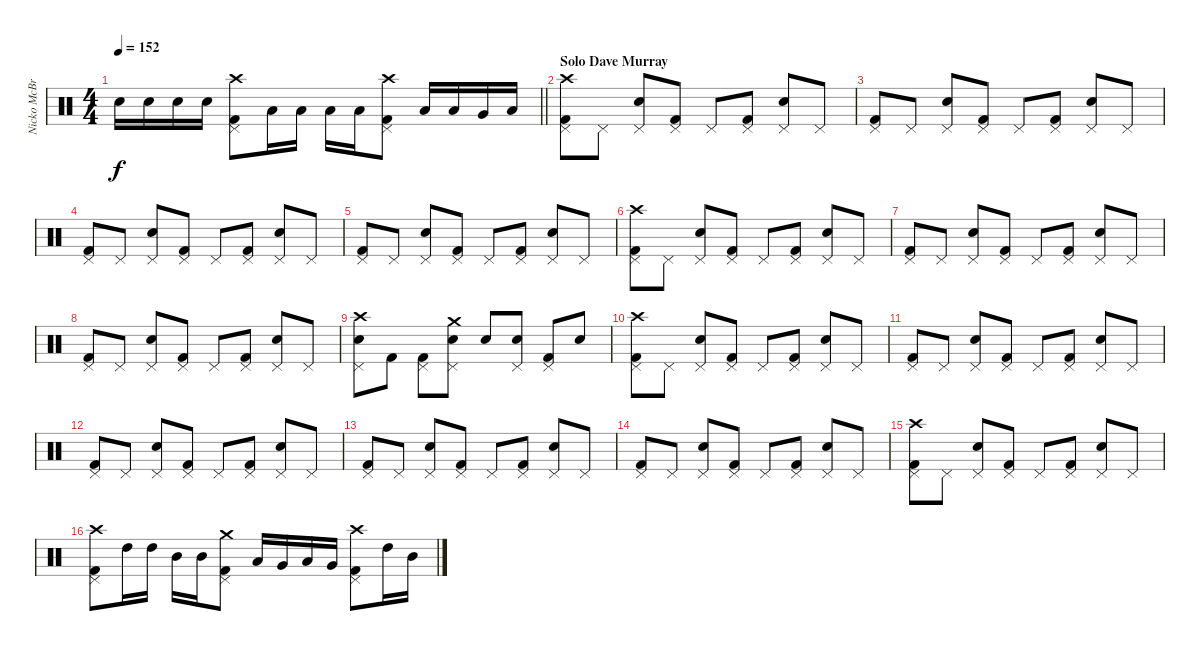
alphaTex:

\track ("Nicko McBrain" "Nicko McBr") {instrument percussion}
\staff {score}
\articulation defaults
\ts (4 4)
\tempo 152
\clef neutral
\barLineRight lightlight
\ks c "Snare (hit) 2".16{dy f} "Snare (hit) 2".16 "Snare (hit) 2".16 "Snare (hit) 2".16
("Kick (hit) 2" "Pedal Hi-Hat (hit)" "Crash high (hit)").8 "Low Tom (hit)".16 "Low Tom (hit)".16 "Low Tom (hit)".16 "Low Tom (hit)".16 ("Kick (hit) 2" "Pedal Hi-Hat (hit)" "Crash high (hit)").8 "Low Tom (hit)".16 "Low Tom (hit)".16 "Very Low Tom (hit)".16 "Low Floor Tom (hit)".16 |
\section ("" "Solo Dave Murray")
("Kick (hit) 2" "Pedal Hi-Hat (hit)" "Crash high (hit)").8 "Pedal Hi-Hat (hit)".8 ("Snare (hit) 2" "Pedal Hi-Hat (hit)").8 ("Kick (hit) 2" "Pedal Hi-Hat (hit)").8 "Pedal Hi-Hat (hit)".8 ("Kick (hit) 2" "Pedal Hi-Hat (hit)").8 ("Snare (hit) 2" "Pedal Hi-Hat (hit)").8 "Pedal Hi-Hat (hit)".8 |
("Kick (hit) 2" "Pedal Hi-Hat (hit)").8 "Pedal Hi-Hat (hit)".8 ("Snare (hit) 2" "Pedal Hi-Hat (hit)").8 ("Kick (hit) 2" "Pedal Hi-Hat (hit)").8 "Pedal Hi-Hat (hit)".8 ("Kick (hit) 2" "Pedal Hi-Hat (hit)").8 ("Snare (hit) 2" "Pedal Hi-Hat (hit)").8 "Pedal Hi-Hat (hit)".8 |
("Kick (hit) 2" "Pedal Hi-Hat (hit)").8 "Pedal Hi-Hat (hit)".8 ("Snare (hit) 2" "Pedal Hi-Hat (hit)").8 ("Kick (hit) 2" "Pedal Hi-Hat (hit)").8 "Pedal Hi-Hat (hit)".8 ("Kick (hit) 2" "Pedal Hi-Hat (hit)").8 ("Snare (hit) 2" "Pedal Hi-Hat (hit)").8 "Pedal Hi-Hat (hit)".8 |
("Kick (hit) 2" "Pedal Hi-Hat (hit)").8 "Pedal Hi-Hat (hit)".8 ("Snare (hit) 2" "Pedal Hi-Hat (hit)").8 ("Kick (hit) 2" "Pedal Hi-Hat (hit)").8 "Pedal Hi-Hat (hit)".8 ("Kick (hit) 2" "Pedal Hi-Hat (hit)").8 ("Snare (hit) 2" "Pedal Hi-Hat (hit)").8 "Pedal Hi-Hat (hit)".8 |
("Kick (hit) 2" "Pedal Hi-Hat (hit)" "Crash high (hit)").8 "Pedal Hi-Hat (hit)".8 ("Snare (hit) 2" "Pedal Hi-Hat (hit)").8 ("Kick (hit) 2" "Pedal Hi-Hat (hit)").8 "Pedal Hi-Hat (hit)".8 ("Kick (hit) 2" "Pedal Hi-Hat (hit)").8 ("Snare (hit) 2" "Pedal Hi-Hat (hit)").8 "Pedal Hi-Hat (hit)".8 |
("Kick (hit) 2" "Pedal Hi-Hat (hit)").8 "Pedal Hi-Hat (hit)".8 ("Snare (hit) 2" "Pedal Hi-Hat (hit)").8 ("Kick (hit) 2" "Pedal Hi-Hat (hit)").8 "Pedal Hi-Hat (hit)".8 ("Kick (hit) 2" "Pedal Hi-Hat (hit)").8 ("Snare (hit) 2" "Pedal Hi-Hat (hit)").8 "Pedal Hi-Hat (hit)".8 |
("Kick (hit) 2" "Pedal Hi-Hat (hit)").8 "Pedal Hi-Hat (hit)".8 ("Snare (hit) 2" "Pedal Hi-Hat (hit)").8 ("Kick (hit) 2" "Pedal Hi-Hat (hit)").8 "Pedal Hi-Hat (hit)".8 ("Kick (hit) 2" "Pedal Hi-Hat (hit)").8 ("Snare (hit) 2" "Pedal Hi-Hat (hit)").8 "Pedal Hi-Hat (hit)".8 |
("Snare (hit) 2" "Pedal Hi-Hat (hit)" "Crash high (hit)").8 "Kick (hit) 2".8 ("Kick (hit) 2" "Pedal Hi-Hat (hit)").8 ("Snare (hit) 2" "Pedal Hi-Hat (hit)" "Crash medium (hit)").8 "Snare (hit) 2".8 ("Snare (hit) 2" "Pedal Hi-Hat (hit)").8 ("Kick (hit) 2" "Pedal Hi-Hat (hit)").8 "Snare (hit) 2".8 |
("Kick (hit) 2" "Pedal Hi-Hat (hit)" "Crash high (hit)").8 "Pedal Hi-Hat (hit)".8 ("Snare (hit) 2" "Pedal Hi-Hat (hit)").8 ("Kick (hit) 2" "Pedal Hi-Hat (hit)").8 "Pedal Hi-Hat (hit)".8 ("Kick (hit) 2" "Pedal Hi-Hat (hit)").8 ("Snare (hit) 2" "Pedal Hi-Hat (hit)").8 "Pedal Hi-Hat (hit)".8 |
("Kick (hit) 2" "Pedal Hi-Hat (hit)").8 "Pedal Hi-Hat (hit)".8 ("Snare (hit) 2" "Pedal Hi-Hat (hit)").8 ("Kick (hit) 2" "Pedal Hi-Hat (hit)").8 "Pedal Hi-Hat (hit)".8 ("Kick (hit) 2" "Pedal Hi-Hat (hit)").8 ("Snare (hit) 2" "Pedal Hi-Hat (hit)").8 "Pedal Hi-Hat (hit)".8 |
("Kick (hit) 2" "Pedal Hi-Hat (hit)").8 "Pedal Hi-Hat (hit)".8 ("Snare (hit) 2" "Pedal Hi-Hat (hit)").8 ("Kick (hit) 2" "Pedal Hi-Hat (hit)").8 "Pedal Hi-Hat (hit)".8 ("Kick (hit) 2" "Pedal Hi-Hat (hit)").8 ("Snare (hit) 2" "Pedal Hi-Hat (hit)").8 "Pedal Hi-Hat (hit)".8 |
("Kick (hit) 2" "Pedal Hi-Hat (hit)").8 "Pedal Hi-Hat (hit)".8 ("Snare (hit) 2" "Pedal Hi-Hat (hit)").8 ("Kick (hit) 2" "Pedal Hi-Hat (hit)").8 "Pedal Hi-Hat (hit)".8 ("Kick (hit) 2" "Pedal Hi-Hat (hit)").8 ("Snare (hit) 2" "Pedal Hi-Hat (hit)").8 "Pedal Hi-Hat (hit)".8 |
("Kick (hit) 2" "Pedal Hi-Hat (hit)").8 "Pedal Hi-Hat (hit)".8 ("Snare (hit) 2" "Pedal Hi-Hat (hit)").8 ("Kick (hit) 2" "Pedal Hi-Hat (hit)").8 "Pedal Hi-Hat (hit)".8 ("Kick (hit) 2" "Pedal Hi-Hat (hit)").8 ("Snare (hit) 2" "Pedal Hi-Hat (hit)").8 "Pedal Hi-Hat (hit)".8 |
("Kick (hit) 2" "Pedal Hi-Hat (hit)" "Crash high (hit)").8 "Pedal Hi-Hat (hit)".8 ("Snare (hit) 2" "Pedal Hi-Hat (hit)").8 ("Kick (hit) 2" "Pedal Hi-Hat (hit)").8 "Pedal Hi-Hat (hit)".8 ("Kick (hit) 2" "Pedal Hi-Hat (hit)").8 ("Snare (hit) 2" "Pedal Hi-Hat (hit)").8 "Pedal Hi-Hat (hit)".8 |
("Kick (hit) 2" "Pedal Hi-Hat (hit)" "Crash high (hit)").8 "High Tom (hit)".16 "High Tom (hit)".16 "Mid Tom (hit)".16 "Mid Tom (hit)".16 ("Kick (hit) 2" "Pedal Hi-Hat (hit)" "Crash medium (hit)").8 "Low Tom (hit)".16 "Very Low Tom (hit)".16 "Low Floor Tom (hit)".16 "Very Low Tom (hit)".16 ("Kick (hit) 2" "Pedal Hi-Hat (hit)" "Crash high (hit)").8 "High Tom (hit)".16 "Mid Tom (hit)".16
